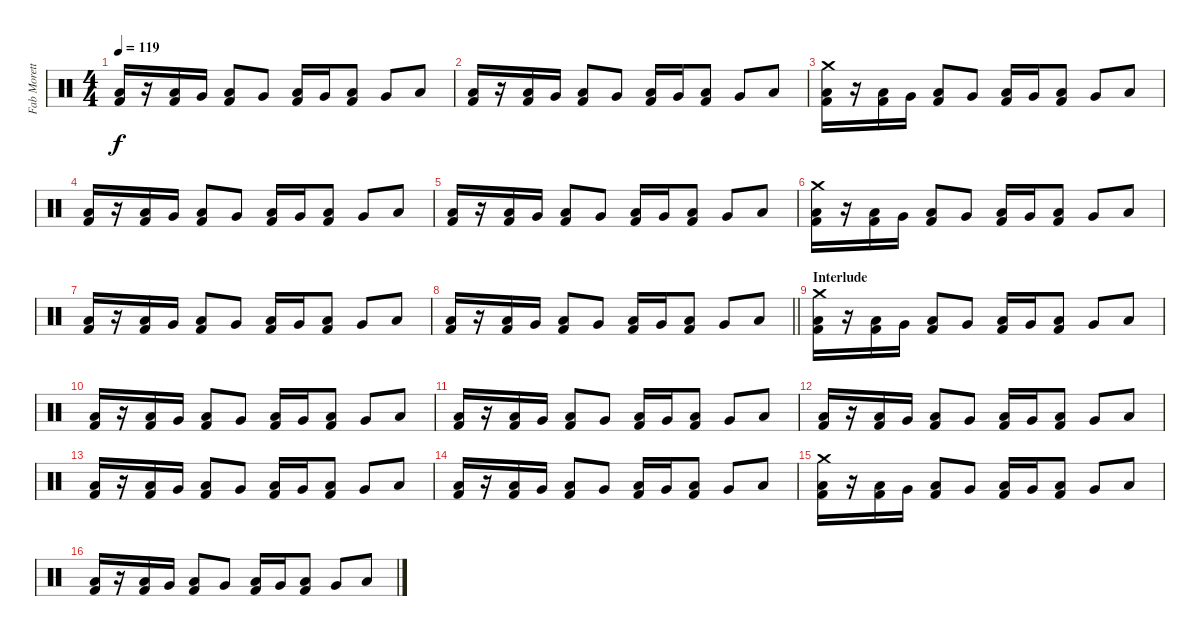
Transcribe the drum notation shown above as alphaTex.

\track ("Fab Moretti" "Fab Morett") {instrument percussion}
\staff {score}
\articulation defaults
\ts (4 4)
\tempo 119
\clef neutral
\ks c
("Low Floor Tom (hit)" "Kick (hit) 2").16{dy f} r.16 ("Low Floor Tom (hit)" "Kick (hit) 2").16 "Very Low Tom (hit)".16 ("Low Floor Tom (hit)" "Kick (hit) 2").8 "Very Low Tom (hit)".8 ("Low Floor Tom (hit)" "Kick (hit) 2").16 "Very Low Tom (hit)".16 ("Low Floor Tom (hit)" "Kick (hit) 2").8 "Very Low Tom (hit)".8 "Low Floor Tom (hit)".8 |
("Low Floor Tom (hit)" "Kick (hit) 2").16 r.16 ("Low Floor Tom (hit)" "Kick (hit) 2").16 "Very Low Tom (hit)".16 ("Low Floor Tom (hit)" "Kick (hit) 2").8 "Very Low Tom (hit)".8 ("Low Floor Tom (hit)" "Kick (hit) 2").16 "Very Low Tom (hit)".16 ("Low Floor Tom (hit)" "Kick (hit) 2").8 "Very Low Tom (hit)".8 "Low Floor Tom (hit)".8 |
("Crash medium (hit)" "Low Floor Tom (hit)" "Kick (hit) 2").16 r.16 ("Low Floor Tom (hit)" "Kick (hit) 2").16 "Very Low Tom (hit)".16 ("Low Floor Tom (hit)" "Kick (hit) 2").8 "Very Low Tom (hit)".8 ("Low Floor Tom (hit)" "Kick (hit) 2").16 "Very Low Tom (hit)".16 ("Low Floor Tom (hit)" "Kick (hit) 2").8 "Very Low Tom (hit)".8 "Low Floor Tom (hit)".8 |
("Low Floor Tom (hit)" "Kick (hit) 2").16 r.16 ("Low Floor Tom (hit)" "Kick (hit) 2").16 "Very Low Tom (hit)".16 ("Low Floor Tom (hit)" "Kick (hit) 2").8 "Very Low Tom (hit)".8 ("Low Floor Tom (hit)" "Kick (hit) 2").16 "Very Low Tom (hit)".16 ("Low Floor Tom (hit)" "Kick (hit) 2").8 "Very Low Tom (hit)".8 "Low Floor Tom (hit)".8 |
("Low Floor Tom (hit)" "Kick (hit) 2").16 r.16 ("Low Floor Tom (hit)" "Kick (hit) 2").16 "Very Low Tom (hit)".16 ("Low Floor Tom (hit)" "Kick (hit) 2").8 "Very Low Tom (hit)".8 ("Low Floor Tom (hit)" "Kick (hit) 2").16 "Very Low Tom (hit)".16 ("Low Floor Tom (hit)" "Kick (hit) 2").8 "Very Low Tom (hit)".8 "Low Floor Tom (hit)".8 |
("Crash medium (hit)" "Low Floor Tom (hit)" "Kick (hit) 2").16 r.16 ("Low Floor Tom (hit)" "Kick (hit) 2").16 "Very Low Tom (hit)".16 ("Low Floor Tom (hit)" "Kick (hit) 2").8 "Very Low Tom (hit)".8 ("Low Floor Tom (hit)" "Kick (hit) 2").16 "Very Low Tom (hit)".16 ("Low Floor Tom (hit)" "Kick (hit) 2").8 "Very Low Tom (hit)".8 "Low Floor Tom (hit)".8 |
("Low Floor Tom (hit)" "Kick (hit) 2").16 r.16 ("Low Floor Tom (hit)" "Kick (hit) 2").16 "Very Low Tom (hit)".16 ("Low Floor Tom (hit)" "Kick (hit) 2").8 "Very Low Tom (hit)".8 ("Low Floor Tom (hit)" "Kick (hit) 2").16 "Very Low Tom (hit)".16 ("Low Floor Tom (hit)" "Kick (hit) 2").8 "Very Low Tom (hit)".8 "Low Floor Tom (hit)".8 |
\barLineRight lightlight
("Low Floor Tom (hit)" "Kick (hit) 2").16 r.16 ("Low Floor Tom (hit)" "Kick (hit) 2").16 "Very Low Tom (hit)".16 ("Low Floor Tom (hit)" "Kick (hit) 2").8 "Very Low Tom (hit)".8 ("Low Floor Tom (hit)" "Kick (hit) 2").16 "Very Low Tom (hit)".16 ("Low Floor Tom (hit)" "Kick (hit) 2").8 "Very Low Tom (hit)".8 "Low Floor Tom (hit)".8 |
\section ("" "Interlude")
("Crash medium (hit)" "Low Floor Tom (hit)" "Kick (hit) 2").16 r.16 ("Low Floor Tom (hit)" "Kick (hit) 2").16 "Very Low Tom (hit)".16 ("Low Floor Tom (hit)" "Kick (hit) 2").8 "Very Low Tom (hit)".8 ("Low Floor Tom (hit)" "Kick (hit) 2").16 "Very Low Tom (hit)".16 ("Low Floor Tom (hit)" "Kick (hit) 2").8 "Very Low Tom (hit)".8 "Low Floor Tom (hit)".8 |
("Low Floor Tom (hit)" "Kick (hit) 2").16 r.16 ("Low Floor Tom (hit)" "Kick (hit) 2").16 "Very Low Tom (hit)".16 ("Low Floor Tom (hit)" "Kick (hit) 2").8 "Very Low Tom (hit)".8 ("Low Floor Tom (hit)" "Kick (hit) 2").16 "Very Low Tom (hit)".16 ("Low Floor Tom (hit)" "Kick (hit) 2").8 "Very Low Tom (hit)".8 "Low Floor Tom (hit)".8 |
("Low Floor Tom (hit)" "Kick (hit) 2").16 r.16 ("Low Floor Tom (hit)" "Kick (hit) 2").16 "Very Low Tom (hit)".16 ("Low Floor Tom (hit)" "Kick (hit) 2").8 "Very Low Tom (hit)".8 ("Low Floor Tom (hit)" "Kick (hit) 2").16 "Very Low Tom (hit)".16 ("Low Floor Tom (hit)" "Kick (hit) 2").8 "Very Low Tom (hit)".8 "Low Floor Tom (hit)".8 |
("Low Floor Tom (hit)" "Kick (hit) 2").16 r.16 ("Low Floor Tom (hit)" "Kick (hit) 2").16 "Very Low Tom (hit)".16 ("Low Floor Tom (hit)" "Kick (hit) 2").8 "Very Low Tom (hit)".8 ("Low Floor Tom (hit)" "Kick (hit) 2").16 "Very Low Tom (hit)".16 ("Low Floor Tom (hit)" "Kick (hit) 2").8 "Very Low Tom (hit)".8 "Low Floor Tom (hit)".8 |
("Low Floor Tom (hit)" "Kick (hit) 2").16 r.16 ("Low Floor Tom (hit)" "Kick (hit) 2").16 "Very Low Tom (hit)".16 ("Low Floor Tom (hit)" "Kick (hit) 2").8 "Very Low Tom (hit)".8 ("Low Floor Tom (hit)" "Kick (hit) 2").16 "Very Low Tom (hit)".16 ("Low Floor Tom (hit)" "Kick (hit) 2").8 "Very Low Tom (hit)".8 "Low Floor Tom (hit)".8 |
("Low Floor Tom (hit)" "Kick (hit) 2").16 r.16 ("Low Floor Tom (hit)" "Kick (hit) 2").16 "Very Low Tom (hit)".16 ("Low Floor Tom (hit)" "Kick (hit) 2").8 "Very Low Tom (hit)".8 ("Low Floor Tom (hit)" "Kick (hit) 2").16 "Very Low Tom (hit)".16 ("Low Floor Tom (hit)" "Kick (hit) 2").8 "Very Low Tom (hit)".8 "Low Floor Tom (hit)".8 |
("Crash medium (hit)" "Low Floor Tom (hit)" "Kick (hit) 2").16 r.16 ("Low Floor Tom (hit)" "Kick (hit) 2").16 "Very Low Tom (hit)".16 ("Low Floor Tom (hit)" "Kick (hit) 2").8 "Very Low Tom (hit)".8 ("Low Floor Tom (hit)" "Kick (hit) 2").16 "Very Low Tom (hit)".16 ("Low Floor Tom (hit)" "Kick (hit) 2").8 "Very Low Tom (hit)".8 "Low Floor Tom (hit)".8 |
("Low Floor Tom (hit)" "Kick (hit) 2").16 r.16 ("Low Floor Tom (hit)" "Kick (hit) 2").16 "Very Low Tom (hit)".16 ("Low Floor Tom (hit)" "Kick (hit) 2").8 "Very Low Tom (hit)".8 ("Low Floor Tom (hit)" "Kick (hit) 2").16 "Very Low Tom (hit)".16 ("Low Floor Tom (hit)" "Kick (hit) 2").8 "Very Low Tom (hit)".8 "Low Floor Tom (hit)".8
